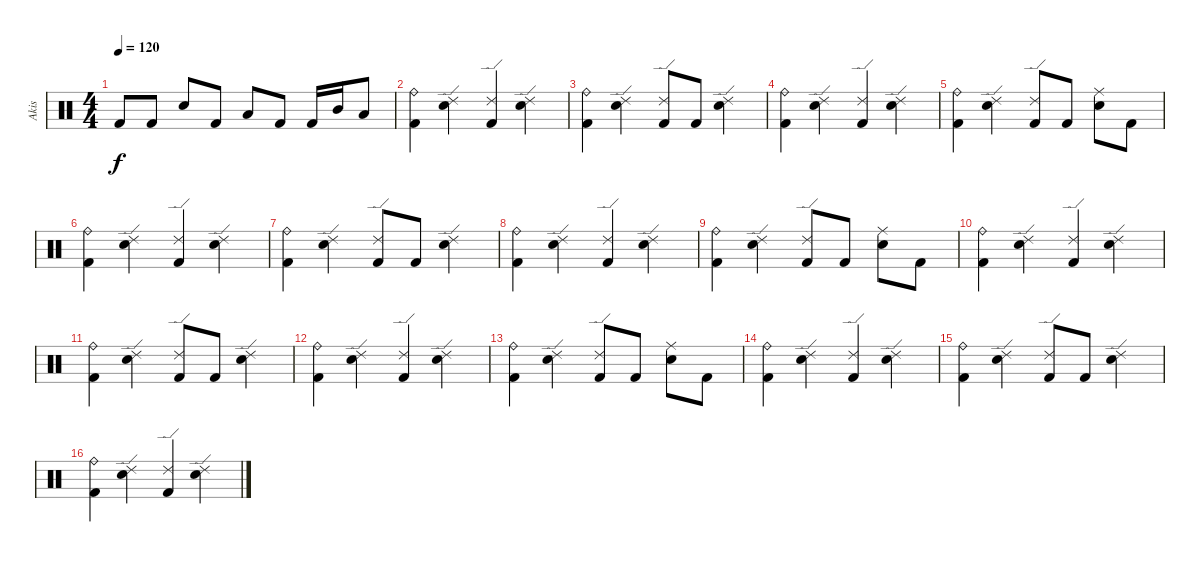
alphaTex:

\track ("Akis" "Akis") {instrument percussion}
\staff {score}
\articulation defaults
\ts (4 4)
\tempo 120
\clef neutral
\ks c "Kick (hit) 2".8{dy f} "Kick (hit) 2".8 "Electric Snare (hit)".8 "Kick (hit) 2".8 "Low Tom (hit)".8 "Kick (hit) 2".8 "Kick (hit) 2".16 "Mid Tom (hit)".16 "Low Tom (hit)".8
|
("Ride (bell)" "Kick (hit) 2").4 ("Ride (edge) 2" "Electric Snare (hit)").4 ("Ride (edge) 2" "Kick (hit) 2").4 ("Ride (edge) 2" "Electric Snare (hit)").4 |
("Ride (bell)" "Kick (hit) 2").4 ("Ride (edge) 2" "Electric Snare (hit)").4 ("Ride (edge) 2" "Kick (hit) 2").8 "Kick (hit) 2".8 ("Ride (edge) 2" "Electric Snare (hit)").4 |
("Ride (bell)" "Kick (hit) 2").4 ("Ride (edge) 2" "Electric Snare (hit)").4 ("Ride (edge) 2" "Kick (hit) 2").4 ("Ride (edge) 2" "Electric Snare (hit)").4 |
("Ride (bell)" "Kick (hit) 2").4 ("Ride (edge) 2" "Electric Snare (hit)").4 ("Ride (edge) 2" "Kick (hit) 2").8 "Kick (hit) 2".8 ("Ride (middle)" "Electric Snare (hit)").8 "Kick (hit) 2".8 |
("Ride (bell)" "Kick (hit) 2").4 ("Ride (edge) 2" "Electric Snare (hit)").4 ("Ride (edge) 2" "Kick (hit) 2").4 ("Ride (edge) 2" "Electric Snare (hit)").4 |
("Ride (bell)" "Kick (hit) 2").4 ("Ride (edge) 2" "Electric Snare (hit)").4 ("Ride (edge) 2" "Kick (hit) 2").8 "Kick (hit) 2".8 ("Ride (edge) 2" "Electric Snare (hit)").4 |
("Ride (bell)" "Kick (hit) 2").4 ("Ride (edge) 2" "Electric Snare (hit)").4 ("Ride (edge) 2" "Kick (hit) 2").4 ("Ride (edge) 2" "Electric Snare (hit)").4 |
("Ride (bell)" "Kick (hit) 2").4 ("Ride (edge) 2" "Electric Snare (hit)").4 ("Ride (edge) 2" "Kick (hit) 2").8 "Kick (hit) 2".8 ("Ride (middle)" "Electric Snare (hit)").8 "Kick (hit) 2".8 |
("Ride (bell)" "Kick (hit) 2").4 ("Ride (edge) 2" "Electric Snare (hit)").4 ("Ride (edge) 2" "Kick (hit) 2").4 ("Ride (edge) 2" "Electric Snare (hit)").4 |
("Ride (bell)" "Kick (hit) 2").4 ("Ride (edge) 2" "Electric Snare (hit)").4 ("Ride (edge) 2" "Kick (hit) 2").8 "Kick (hit) 2".8 ("Ride (edge) 2" "Electric Snare (hit)").4 |
("Ride (bell)" "Kick (hit) 2").4 ("Ride (edge) 2" "Electric Snare (hit)").4 ("Ride (edge) 2" "Kick (hit) 2").4 ("Ride (edge) 2" "Electric Snare (hit)").4 |
("Ride (bell)" "Kick (hit) 2").4 ("Ride (edge) 2" "Electric Snare (hit)").4 ("Ride (edge) 2" "Kick (hit) 2").8 "Kick (hit) 2".8 ("Ride (middle)" "Electric Snare (hit)").8 "Kick (hit) 2".8 |
("Ride (bell)" "Kick (hit) 2").4 ("Ride (edge) 2" "Electric Snare (hit)").4 ("Ride (edge) 2" "Kick (hit) 2").4 ("Ride (edge) 2" "Electric Snare (hit)").4 |
("Ride (bell)" "Kick (hit) 2").4 ("Ride (edge) 2" "Electric Snare (hit)").4 ("Ride (edge) 2" "Kick (hit) 2").8 "Kick (hit) 2".8 ("Ride (edge) 2" "Electric Snare (hit)").4 |
("Ride (bell)" "Kick (hit) 2").4 ("Ride (edge) 2" "Electric Snare (hit)").4 ("Ride (edge) 2" "Kick (hit) 2").4 ("Ride (edge) 2" "Electric Snare (hit)").4
